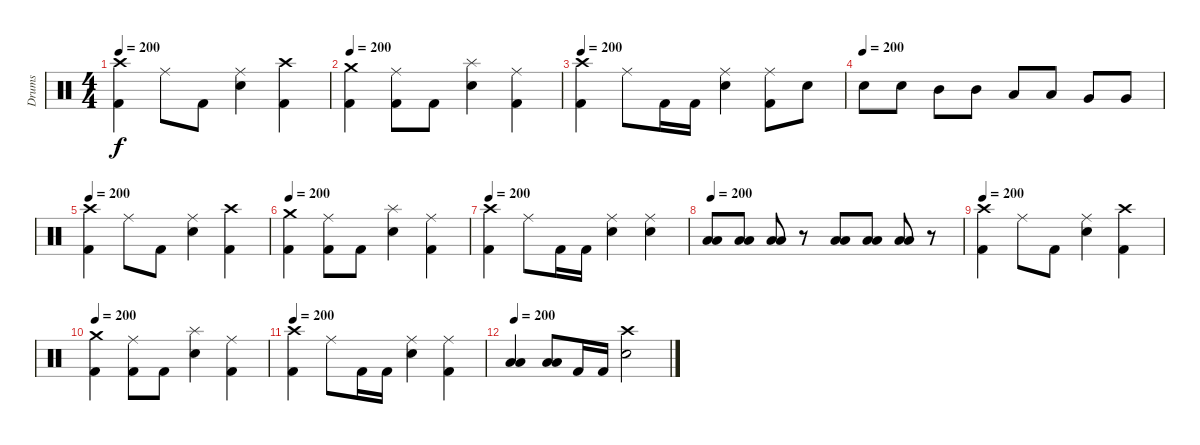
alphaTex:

\track ("Drums" "Drums") {instrument percussion}
\staff {score}
\articulation defaults
\ts (4 4)
\tempo 200
\clef neutral
\ks c
("Crash high (hit)" "Kick (hit) 2").4{dy f} "Ride (middle)".8 "Kick (hit) 2".8 ("Ride (middle)" "Electric Snare (hit)").4 ("Crash high (hit)" "Kick (hit) 2").4 |
\tempo 200
("Crash medium (hit)" "Kick (hit) 2").4 ("Ride (middle)" "Kick (hit) 2").8 "Kick (hit) 2".8 ("Splash (hit)" "Electric Snare (hit)").4 ("Ride (middle)" "Kick (hit) 2").4 |
\tempo 200
("Crash high (hit)" "Kick (hit) 2").4 "Ride (middle)".8 "Kick (hit) 2".16 "Kick (hit) 2".16 ("Ride (middle)" "Electric Snare (hit)").4 ("Ride (middle)" "Kick (hit) 2").8 "Electric Snare (hit)".8 |
\tempo (200)
"Electric Snare (hit)".8 "Electric Snare (hit)".8 "Mid Tom (hit)".8 "Mid Tom (hit)".8 "Low Tom (hit)".8 "Low Tom (hit)".8 "Very Low Tom (hit)".8 "Very Low Tom (hit)".8 |
\tempo 200
("Crash high (hit)" "Kick (hit) 2").4 "Ride (middle)".8 "Kick (hit) 2".8 ("Ride (middle)" "Electric Snare (hit)").4 ("Crash high (hit)" "Kick (hit) 2").4 |
\tempo 200
("Crash medium (hit)" "Kick (hit) 2").4 ("Ride (middle)" "Kick (hit) 2").8 "Kick (hit) 2".8 ("Splash (hit)" "Electric Snare (hit)").4 ("Ride (middle)" "Kick (hit) 2").4 |
\tempo 200
("Crash high (hit)" "Kick (hit) 2").4 "Ride (middle)".8 "Kick (hit) 2".16 "Kick (hit) 2".16 ("Ride (middle)" "Electric Snare (hit)").4 ("Ride (middle)" "Electric Snare (hit)").4 |
\tempo 200
("Low Tom (hit)" "Low Tom (hit)").8 ("Low Tom (hit)" "Low Tom (hit)").8 ("Low Tom (hit)" "Low Tom (hit)").8 r.8 ("Low Tom (hit)" "Low Tom (hit)").8 ("Low Tom (hit)" "Low Tom (hit)").8 ("Low Tom (hit)" "Low Tom (hit)").8 r.8 |
\tempo 200
("Crash high (hit)" "Kick (hit) 2").4 "Ride (middle)".8 "Kick (hit) 2".8 ("Ride (middle)" "Electric Snare (hit)").4 ("Crash high (hit)" "Kick (hit) 2").4 |
\tempo 200
("Crash medium (hit)" "Kick (hit) 2").4 ("Ride (middle)" "Kick (hit) 2").8 "Kick (hit) 2".8 ("Splash (hit)" "Electric Snare (hit)").4 ("Ride (middle)" "Kick (hit) 2").4 |
\tempo 200
("Crash high (hit)" "Kick (hit) 2").4 "Ride (middle)".8 "Kick (hit) 2".16 "Kick (hit) 2".16 ("Ride (middle)" "Electric Snare (hit)").4 ("Ride (middle)" "Kick (hit) 2").4 |
\tempo 200
("Low Tom (hit)" "Low Tom (hit)").4 ("Low Tom (hit)" "Low Tom (hit)").8 "Kick (hit) 2".16 "Kick (hit) 2".16 ("Crash high (hit)" "Electric Snare (hit)").2
